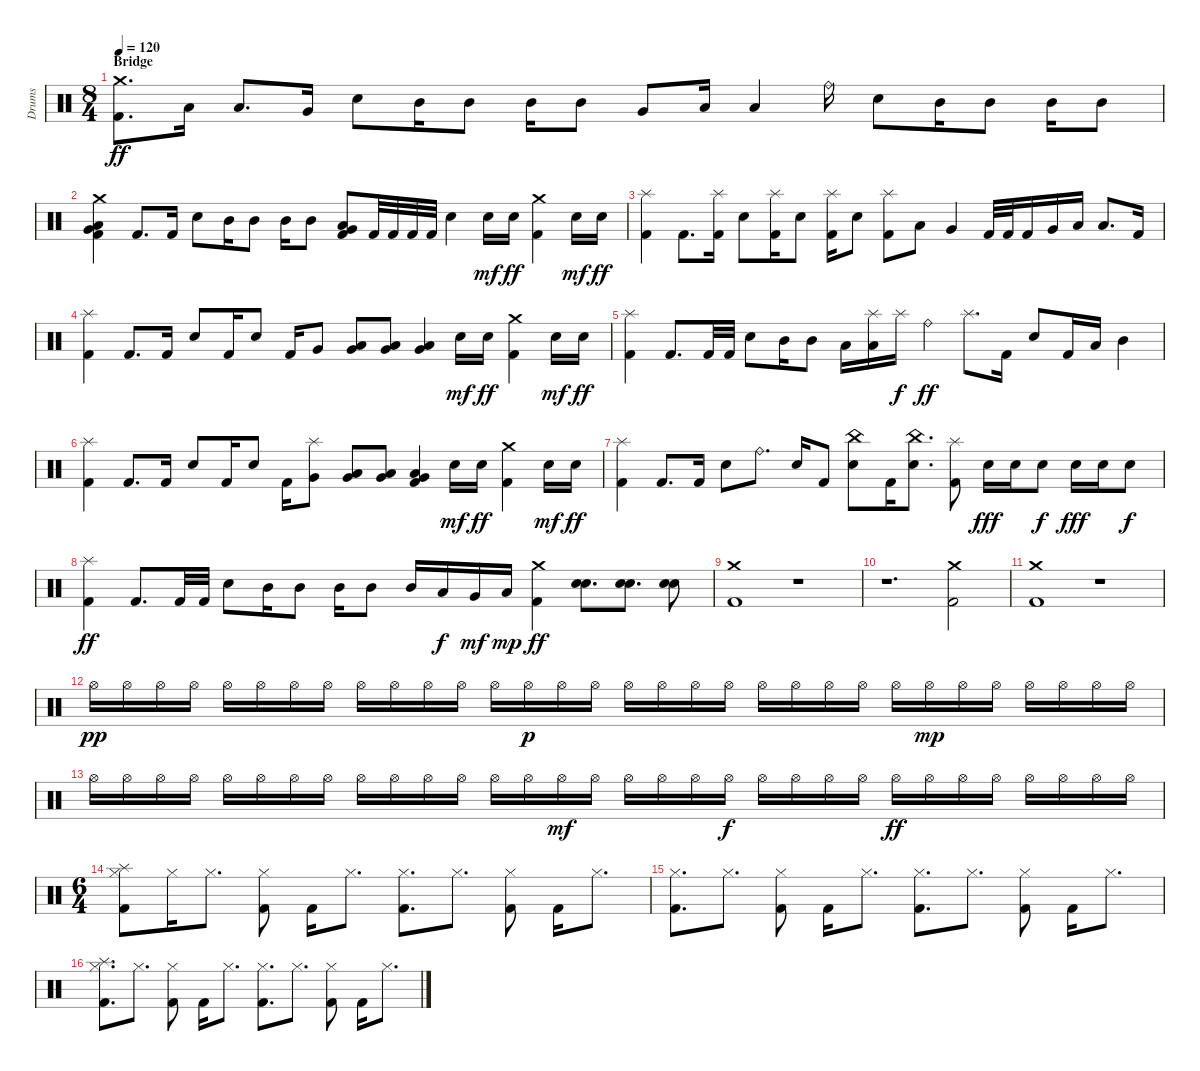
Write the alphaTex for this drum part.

\track ("Drums" "Drums") {instrument percussion}
\staff {score}
\articulation defaults
\ts (8 4)
\section ("" "Bridge")
\tempo 120
\clef neutral
\ks c
("Crash medium (hit)" "Kick (hit) 2").8{d dy ff} "Low Tom (hit)".16 "Low Tom (hit)".8{d} "Very Low Tom (hit)".16 "Electric Snare (hit)".8 "Mid Tom (hit)".16 "Mid Tom (hit)".8 "Mid Tom (hit)".16 "Mid Tom (hit)".8 "Very Low Tom (hit)".8 "Low Floor Tom (hit)".16 "Low Floor Tom (hit)".4 "Ride (bell)".16 "Electric Snare (hit)".8 "Mid Tom (hit)".16 "Mid Tom (hit)".8 "Mid Tom (hit)".16 "Mid Tom (hit)".8 |
("Crash medium (hit)" "Very Low Tom (hit)" "Low Floor Tom (hit)" "Kick (hit) 2").4 "Kick (hit) 2".8{d} "Kick (hit) 2".16 "Electric Snare (hit)".8 "Mid Tom (hit)".16 "Mid Tom (hit)".8 "Mid Tom (hit)".16 "Mid Tom (hit)".8 ("Very Low Tom (hit)" "Low Floor Tom (hit)" "Kick (hit) 2").8 "Kick (hit) 2".32 "Kick (hit) 2".32 "Kick (hit) 2".32 "Kick (hit) 2".32 "Electric Snare (hit)".4 "Electric Snare (hit)".16{dy mf} "Electric Snare (hit)".16{dy ff} ("Crash medium (hit)" "Kick (hit) 2").4 "Electric Snare (hit)".16{dy mf} "Electric Snare (hit)".16{dy ff} |
("Splash (hit)" "Kick (hit) 2").4 "Kick (hit) 2".8{d} ("Splash (hit)" "Kick (hit) 2").16 "Electric Snare (hit)".8 ("Splash (hit)" "Kick (hit) 2").16 "Electric Snare (hit)".8 ("Splash (hit)" "Kick (hit) 2").16 "Electric Snare (hit)".8 ("Splash (hit)" "Kick (hit) 2").8 "Low Tom (hit)".8 "Very Low Tom (hit)".4 "Kick (hit) 2".32 "Kick (hit) 2".32 "Kick (hit) 2".16 "Very Low Tom (hit)".16 "Low Floor Tom (hit)".16 "Low Tom (hit)".8{d} "Kick (hit) 2".16 |
("Splash (hit)" "Kick (hit) 2").4 "Kick (hit) 2".8{d} "Kick (hit) 2".16 "Electric Snare (hit)".8 "Kick (hit) 2".16 "Electric Snare (hit)".8 "Kick (hit) 2".16 "Very Low Tom (hit)".8 ("Very Low Tom (hit)" "Low Floor Tom (hit)").8 ("Low Tom (hit)" "Very Low Tom (hit)").8 ("Very Low Tom (hit)" "Low Floor Tom (hit)").4 "Electric Snare (hit)".16{dy mf} "Electric Snare (hit)".16{dy ff} ("Crash medium (hit)" "Kick (hit) 2").4 "Electric Snare (hit)".16{dy mf} "Electric Snare (hit)".16{dy ff} |
("Splash (hit)" "Kick (hit) 2").4 "Kick (hit) 2".8{d} "Kick (hit) 2".32 "Kick (hit) 2".32 "Electric Snare (hit)".8 "Mid Tom (hit)".16 "Mid Tom (hit)".8 "Low Tom (hit)".16 ("Splash (hit)" "Low Tom (hit)").16 "Splash (hit)".16{dy f} "Ride (bell)".4{dy ff} "Splash (hit)".8{d} "Kick (hit) 2".16 "Electric Snare (hit)".8 "Kick (hit) 2".16 "Low Tom (hit)".16 "Mid Tom (hit)".4 |
("Splash (hit)" "Kick (hit) 2").4 "Kick (hit) 2".8{d} "Kick (hit) 2".16 "Electric Snare (hit)".8 "Kick (hit) 2".16 "Electric Snare (hit)".8 "Kick (hit) 2".16 ("Splash (hit)" "Very Low Tom (hit)").8 ("Very Low Tom (hit)" "Low Floor Tom (hit)").8 ("Low Tom (hit)" "Very Low Tom (hit)").8 ("Very Low Tom (hit)" "Low Floor Tom (hit)" "Kick (hit) 2").4 "Electric Snare (hit)".16{dy mf} "Electric Snare (hit)".16{dy ff} ("Crash medium (hit)" "Kick (hit) 2").4 "Electric Snare (hit)".16{dy mf} "Electric Snare (hit)".16{dy ff} |
("Splash (hit)" "Kick (hit) 2").4 "Kick (hit) 2".8{d} "Kick (hit) 2".16 "Electric Snare (hit)".8 "Ride (bell)".8{d} "Electric Snare (hit)".16 "Kick (hit) 2".8 ("China (hit)" "Electric Snare (hit)").8 "Kick (hit) 2".16 ("China (hit)" "Electric Snare (hit)").8{d} ("Splash (hit)" "Kick (hit) 2").8 "Electric Snare (hit)".16{dy fff} "Electric Snare (hit)".16 "Electric Snare (hit)".8{dy f} "Electric Snare (hit)".16{dy fff} "Electric Snare (hit)".16 "Electric Snare (hit)".8{dy f} |
("Splash (hit)" "Kick (hit) 2").4{dy ff} "Kick (hit) 2".8{d} "Kick (hit) 2".32 "Kick (hit) 2".32 "Electric Snare (hit)".8 "Mid Tom (hit)".16 "Mid Tom (hit)".8 "Mid Tom (hit)".16 "Mid Tom (hit)".8 "Mid Tom (hit)".16 "Low Tom (hit)".16{dy f} "Very Low Tom (hit)".16{dy mf} "Low Floor Tom (hit)".16{dy mp} ("Crash medium (hit)" "Kick (hit) 2").4{dy ff} ("Electric Snare (hit)" "Electric Snare (hit)").8{d} ("Electric Snare (hit)" "Electric Snare (hit)").8{d} ("Electric Snare (hit)" "Electric Snare (hit)").8 |
("Crash medium (hit)" "Kick (hit) 2").1 r.1 |
r.1{d} ("Crash medium (hit)" "Kick (hit) 2").2 |
("Crash medium (hit)" "Kick (hit) 2").1 r.1 |
"Hi-Hat (open)".16{dy pp} "Hi-Hat (open)".16 "Hi-Hat (open)".16 "Hi-Hat (open)".16 "Hi-Hat (open)".16 "Hi-Hat (open)".16 "Hi-Hat (open)".16 "Hi-Hat (open)".16 "Hi-Hat (open)".16 "Hi-Hat (open)".16 "Hi-Hat (open)".16 "Hi-Hat (open)".16 "Hi-Hat (open)".16 "Hi-Hat (open)".16{dy p} "Hi-Hat (open)".16 "Hi-Hat (open)".16 "Hi-Hat (open)".16 "Hi-Hat (open)".16 "Hi-Hat (open)".16 "Hi-Hat (open)".16 "Hi-Hat (open)".16 "Hi-Hat (open)".16 "Hi-Hat (open)".16 "Hi-Hat (open)".16 "Hi-Hat (open)".16 "Hi-Hat (open)".16{dy mp} "Hi-Hat (open)".16 "Hi-Hat (open)".16 "Hi-Hat (open)".16 "Hi-Hat (open)".16 "Hi-Hat (open)".16 "Hi-Hat (open)".16 |
"Hi-Hat (open)".16 "Hi-Hat (open)".16 "Hi-Hat (open)".16 "Hi-Hat (open)".16 "Hi-Hat (open)".16 "Hi-Hat (open)".16 "Hi-Hat (open)".16 "Hi-Hat (open)".16 "Hi-Hat (open)".16 "Hi-Hat (open)".16 "Hi-Hat (open)".16 "Hi-Hat (open)".16 "Hi-Hat (open)".16 "Hi-Hat (open)".16 "Hi-Hat (open)".16{dy mf} "Hi-Hat (open)".16 "Hi-Hat (open)".16 "Hi-Hat (open)".16 "Hi-Hat (open)".16 "Hi-Hat (open)".16{dy f} "Hi-Hat (open)".16 "Hi-Hat (open)".16 "Hi-Hat (open)".16 "Hi-Hat (open)".16 "Hi-Hat (open)".16{dy ff} "Hi-Hat (open)".16 "Hi-Hat (open)".16 "Hi-Hat (open)".16 "Hi-Hat (open)".16 "Hi-Hat (open)".16 "Hi-Hat (open)".16 "Hi-Hat (open)".16 |
\ts (6 4)
("Splash (hit)" "Hi-Hat (closed)" "Kick (hit) 2").8 "Hi-Hat (closed)".16 "Hi-Hat (closed)".8{d} ("Hi-Hat (closed)" "Kick (hit) 2").8 "Kick (hit) 2".16 "Hi-Hat (closed)".8{d} ("Hi-Hat (closed)" "Kick (hit) 2").8{d} "Hi-Hat (closed)".8{d} ("Hi-Hat (closed)" "Kick (hit) 2").8 "Kick (hit) 2".16 "Hi-Hat (closed)".8{d} |
("Hi-Hat (closed)" "Kick (hit) 2").8{d} "Hi-Hat (closed)".8{d} ("Hi-Hat (closed)" "Kick (hit) 2").8 "Kick (hit) 2".16 "Hi-Hat (closed)".8{d} ("Hi-Hat (closed)" "Kick (hit) 2").8{d} "Hi-Hat (closed)".8{d} ("Hi-Hat (closed)" "Kick (hit) 2").8 "Kick (hit) 2".16 "Hi-Hat (closed)".8{d} |
("Splash (hit)" "Hi-Hat (closed)" "Kick (hit) 2").8{d} "Hi-Hat (closed)".8{d} ("Hi-Hat (closed)" "Kick (hit) 2").8 "Kick (hit) 2".16 "Hi-Hat (closed)".8{d} ("Hi-Hat (closed)" "Kick (hit) 2").8{d} "Hi-Hat (closed)".8{d} ("Hi-Hat (closed)" "Kick (hit) 2").8 "Kick (hit) 2".16 "Hi-Hat (closed)".8{d}
